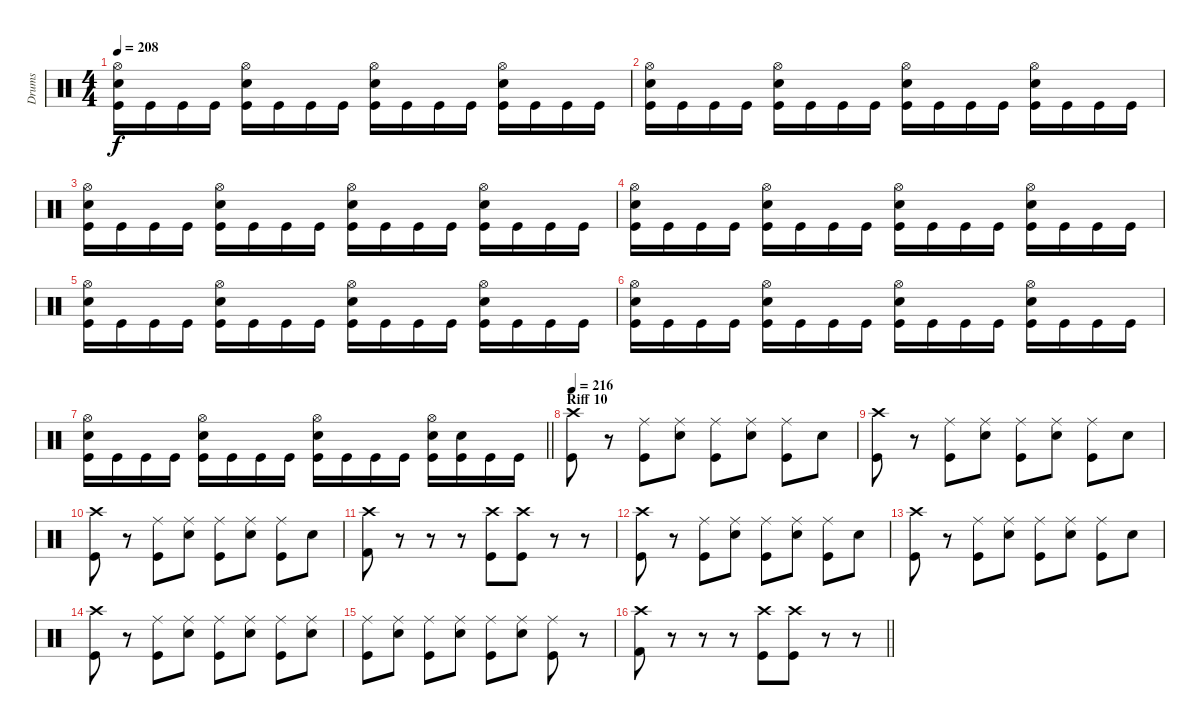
\track ("Drums" "Drums") {instrument percussion}
\staff {score}
\articulation defaults
\ts (4 4)
\tempo 208
\clef neutral
\ks c
("Hi-Hat (open)" "Snare (hit) 2" "Kick (hit)").16{dy f} "Kick (hit)".16 "Kick (hit)".16 "Kick (hit)".16 ("Hi-Hat (open)" "Snare (hit) 2" "Kick (hit)").16 "Kick (hit)".16 "Kick (hit)".16 "Kick (hit)".16 ("Hi-Hat (open)" "Snare (hit) 2" "Kick (hit)").16 "Kick (hit)".16 "Kick (hit)".16 "Kick (hit)".16 ("Hi-Hat (open)" "Snare (hit) 2" "Kick (hit)").16 "Kick (hit)".16 "Kick (hit)".16 "Kick (hit)".16 |
("Hi-Hat (open)" "Snare (hit) 2" "Kick (hit)").16 "Kick (hit)".16 "Kick (hit)".16 "Kick (hit)".16 ("Hi-Hat (open)" "Snare (hit) 2" "Kick (hit)").16 "Kick (hit)".16 "Kick (hit)".16 "Kick (hit)".16 ("Hi-Hat (open)" "Snare (hit) 2" "Kick (hit)").16 "Kick (hit)".16 "Kick (hit)".16 "Kick (hit)".16 ("Hi-Hat (open)" "Snare (hit) 2" "Kick (hit)").16 "Kick (hit)".16 "Kick (hit)".16 "Kick (hit)".16 |
("Hi-Hat (open)" "Snare (hit) 2" "Kick (hit)").16 "Kick (hit)".16 "Kick (hit)".16 "Kick (hit)".16 ("Hi-Hat (open)" "Snare (hit) 2" "Kick (hit)").16 "Kick (hit)".16 "Kick (hit)".16 "Kick (hit)".16 ("Hi-Hat (open)" "Snare (hit) 2" "Kick (hit)").16 "Kick (hit)".16 "Kick (hit)".16 "Kick (hit)".16 ("Hi-Hat (open)" "Snare (hit) 2" "Kick (hit)").16 "Kick (hit)".16 "Kick (hit)".16 "Kick (hit)".16 |
("Hi-Hat (open)" "Snare (hit) 2" "Kick (hit)").16 "Kick (hit)".16 "Kick (hit)".16 "Kick (hit)".16 ("Hi-Hat (open)" "Snare (hit) 2" "Kick (hit)").16 "Kick (hit)".16 "Kick (hit)".16 "Kick (hit)".16 ("Hi-Hat (open)" "Snare (hit) 2" "Kick (hit)").16 "Kick (hit)".16 "Kick (hit)".16 "Kick (hit)".16 ("Hi-Hat (open)" "Snare (hit) 2" "Kick (hit)").16 "Kick (hit)".16 "Kick (hit)".16 "Kick (hit)".16 |
("Hi-Hat (open)" "Snare (hit) 2" "Kick (hit)").16 "Kick (hit)".16 "Kick (hit)".16 "Kick (hit)".16 ("Hi-Hat (open)" "Snare (hit) 2" "Kick (hit)").16 "Kick (hit)".16 "Kick (hit)".16 "Kick (hit)".16 ("Hi-Hat (open)" "Snare (hit) 2" "Kick (hit)").16 "Kick (hit)".16 "Kick (hit)".16 "Kick (hit)".16 ("Hi-Hat (open)" "Snare (hit) 2" "Kick (hit)").16 "Kick (hit)".16 "Kick (hit)".16 "Kick (hit)".16 |
("Hi-Hat (open)" "Snare (hit) 2" "Kick (hit)").16 "Kick (hit)".16 "Kick (hit)".16 "Kick (hit)".16 ("Hi-Hat (open)" "Snare (hit) 2" "Kick (hit)").16 "Kick (hit)".16 "Kick (hit)".16 "Kick (hit)".16 ("Hi-Hat (open)" "Snare (hit) 2" "Kick (hit)").16 "Kick (hit)".16 "Kick (hit)".16 "Kick (hit)".16 ("Hi-Hat (open)" "Snare (hit) 2" "Kick (hit)").16 "Kick (hit)".16 "Kick (hit)".16 "Kick (hit)".16 |
\barLineRight lightlight
("Hi-Hat (open)" "Snare (hit) 2" "Kick (hit)").16 "Kick (hit)".16 "Kick (hit)".16 "Kick (hit)".16 ("Hi-Hat (open)" "Snare (hit) 2" "Kick (hit)").16 "Kick (hit)".16 "Kick (hit)".16 "Kick (hit)".16 ("Hi-Hat (open)" "Snare (hit) 2" "Kick (hit)").16 "Kick (hit)".16 "Kick (hit)".16 "Kick (hit)".16 ("Hi-Hat (open)" "Snare (hit) 2" "Kick (hit)").16 ("Snare (hit) 2" "Kick (hit)").16 "Kick (hit)".16 "Kick (hit)".16 |
\section ("" "Riff 10")
\tempo 216
("Crash high (hit)" "Kick (hit)").8 r.8 ("Ride (middle)" "Kick (hit)").8 ("Ride (middle)" "Snare (hit) 2").8 ("Ride (middle)" "Kick (hit)").8 ("Ride (middle)" "Snare (hit) 2").8 ("Ride (middle)" "Kick (hit)").8 "Snare (hit) 2".8 |
("Crash high (hit)" "Kick (hit)").8 r.8 ("Ride (middle)" "Kick (hit)").8 ("Ride (middle)" "Snare (hit) 2").8 ("Ride (middle)" "Kick (hit)").8 ("Ride (middle)" "Snare (hit) 2").8 ("Ride (middle)" "Kick (hit)").8 "Snare (hit) 2".8 |
("Crash high (hit)" "Kick (hit)").8 r.8 ("Ride (middle)" "Kick (hit)").8 ("Ride (middle)" "Snare (hit) 2").8 ("Ride (middle)" "Kick (hit)").8 ("Ride (middle)" "Snare (hit) 2").8 ("Ride (middle)" "Kick (hit)").8 "Snare (hit) 2".8 |
("Crash high (hit)" "Kick (hit) 2").8 r.8 r.8 r.8 ("Crash high (hit)" "Kick (hit)").8 ("Crash high (hit)" "Kick (hit)").8 r.8 r.8 |
("Crash high (hit)" "Kick (hit)").8 r.8 ("Ride (middle)" "Kick (hit)").8 ("Ride (middle)" "Snare (hit) 2").8 ("Ride (middle)" "Kick (hit)").8 ("Ride (middle)" "Snare (hit) 2").8 ("Ride (middle)" "Kick (hit)").8 "Snare (hit) 2".8 |
("Crash high (hit)" "Kick (hit)").8 r.8 ("Ride (middle)" "Kick (hit)").8 ("Ride (middle)" "Snare (hit) 2").8 ("Ride (middle)" "Kick (hit)").8 ("Ride (middle)" "Snare (hit) 2").8 ("Ride (middle)" "Kick (hit)").8 "Snare (hit) 2".8 |
("Crash high (hit)" "Kick (hit)").8 r.8 ("Ride (middle)" "Kick (hit)").8 ("Ride (middle)" "Snare (hit) 2").8 ("Ride (middle)" "Kick (hit)").8 ("Ride (middle)" "Snare (hit) 2").8 ("Ride (middle)" "Kick (hit)").8 ("Ride (middle)" "Snare (hit) 2").8 |
("Ride (middle)" "Kick (hit)").8 ("Ride (middle)" "Snare (hit) 2").8 ("Ride (middle)" "Kick (hit)").8 ("Ride (middle)" "Snare (hit) 2").8 ("Ride (middle)" "Kick (hit)").8 ("Ride (middle)" "Snare (hit) 2").8 ("Ride (middle)" "Kick (hit)").8 r.8 |
\barLineRight lightlight
("Crash high (hit)" "Kick (hit) 2").8 r.8 r.8 r.8 ("Crash high (hit)" "Kick (hit)").8 ("Crash high (hit)" "Kick (hit)").8 r.8 r.8
